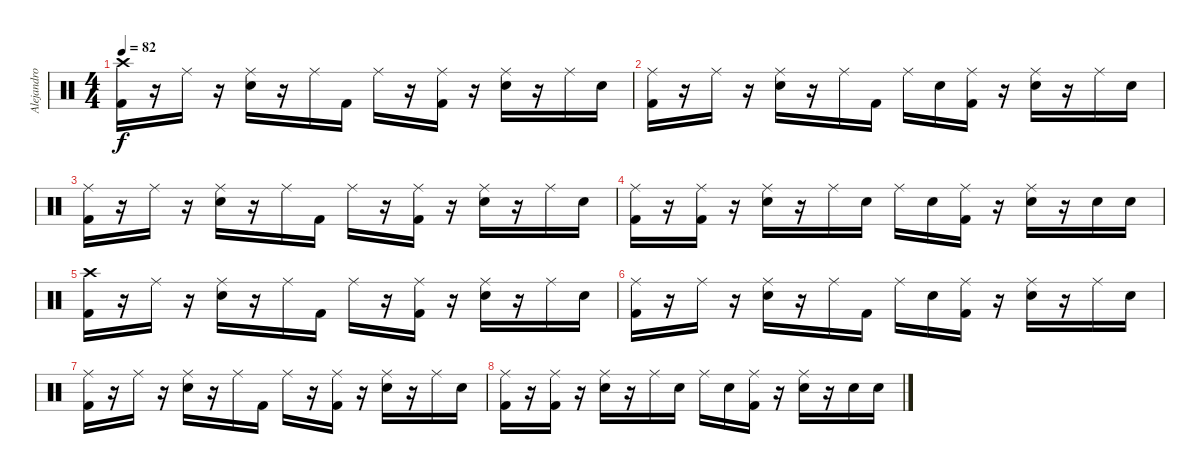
\track ("Alejandro" "Alejandro") {instrument percussion}
\staff {score}
\articulation defaults
\ts (4 4)
\tempo 82
\clef neutral
\ks c
("Crash high (hit)" "Kick (hit) 2").16{dy f} r.16 "Ride (middle)".16 r.16 ("Ride (middle)" "Electric Snare (hit)").16 r.16 "Ride (middle)".16 "Kick (hit) 2".16 "Ride (middle)".16 r.16 ("Ride (middle)" "Kick (hit) 2").16 r.16 ("Ride (middle)" "Electric Snare (hit)").16 r.16 "Ride (middle)".16 "Snare (hit)".16 |
("Ride (middle)" "Kick (hit) 2").16 r.16 "Ride (middle)".16 r.16 ("Ride (middle)" "Electric Snare (hit)").16 r.16 "Ride (middle)".16 "Kick (hit) 2".16 "Ride (middle)".16 "Electric Snare (hit)".16 ("Ride (middle)" "Kick (hit) 2").16 r.16 ("Ride (middle)" "Electric Snare (hit)").16 r.16 "Ride (middle)".16 "Snare (hit)".16 |
("Ride (middle)" "Kick (hit) 2").16 r.16 "Ride (middle)".16 r.16 ("Ride (middle)" "Electric Snare (hit)").16 r.16 "Ride (middle)".16 "Kick (hit) 2".16 "Ride (middle)".16 r.16 ("Ride (middle)" "Kick (hit) 2").16 r.16 ("Ride (middle)" "Electric Snare (hit)").16 r.16 "Ride (middle)".16 "Snare (hit)".16 |
("Ride (middle)" "Kick (hit) 2").16 r.16 ("Ride (middle)" "Kick (hit) 2").16 r.16 ("Ride (middle)" "Electric Snare (hit)").16 r.16 "Ride (middle)".16 "Electric Snare (hit)".16 "Ride (middle)".16 "Electric Snare (hit)".16 ("Ride (middle)" "Kick (hit) 2").16 r.16 ("Ride (middle)" "Electric Snare (hit)").16 r.16 "Electric Snare (hit)".16 "Electric Snare (hit)".16 |
("Crash high (hit)" "Kick (hit) 2").16 r.16 "Ride (middle)".16 r.16 ("Ride (middle)" "Electric Snare (hit)").16 r.16 "Ride (middle)".16 "Kick (hit) 2".16 "Ride (middle)".16 r.16 ("Ride (middle)" "Kick (hit) 2").16 r.16 ("Ride (middle)" "Electric Snare (hit)").16 r.16 "Ride (middle)".16 "Snare (hit)".16 |
("Ride (middle)" "Kick (hit) 2").16 r.16 "Ride (middle)".16 r.16 ("Ride (middle)" "Electric Snare (hit)").16 r.16 "Ride (middle)".16 "Kick (hit) 2".16 "Ride (middle)".16 "Electric Snare (hit)".16 ("Ride (middle)" "Kick (hit) 2").16 r.16 ("Ride (middle)" "Electric Snare (hit)").16 r.16 "Ride (middle)".16 "Snare (hit)".16 |
("Ride (middle)" "Kick (hit) 2").16 r.16 "Ride (middle)".16 r.16 ("Ride (middle)" "Electric Snare (hit)").16 r.16 "Ride (middle)".16 "Kick (hit) 2".16 "Ride (middle)".16 r.16 ("Ride (middle)" "Kick (hit) 2").16 r.16 ("Ride (middle)" "Electric Snare (hit)").16 r.16 "Ride (middle)".16 "Snare (hit)".16 |
("Ride (middle)" "Kick (hit) 2").16 r.16 ("Ride (middle)" "Kick (hit) 2").16 r.16 ("Ride (middle)" "Electric Snare (hit)").16 r.16 "Ride (middle)".16 "Electric Snare (hit)".16 "Ride (middle)".16 "Electric Snare (hit)".16 ("Ride (middle)" "Kick (hit) 2").16 r.16 ("Ride (middle)" "Electric Snare (hit)").16 r.16 "Electric Snare (hit)".16 "Electric Snare (hit)".16
